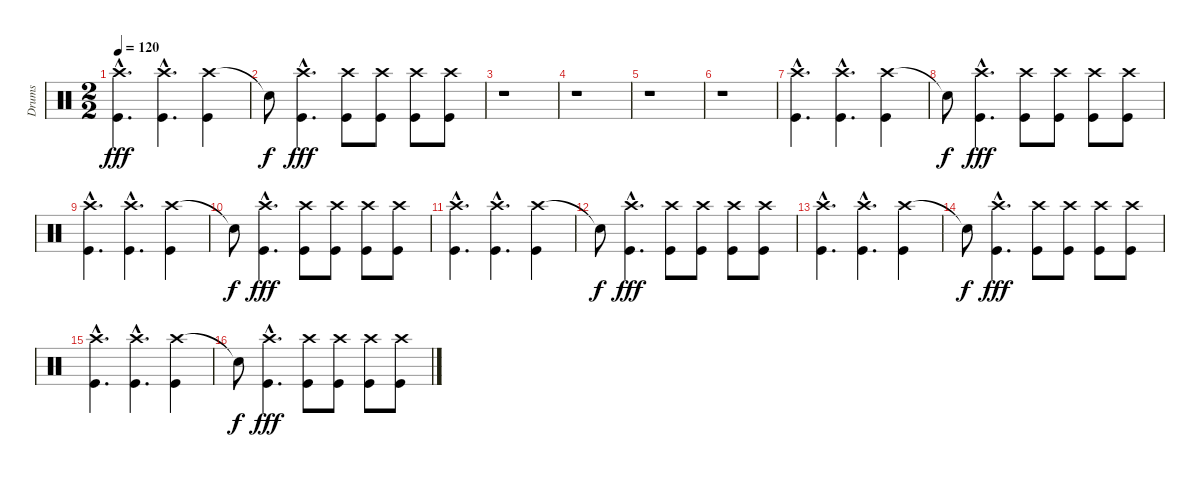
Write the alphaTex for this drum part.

\track ("Drums" "Drums") {instrument percussion}
\staff {score}
\articulation defaults
\ts (2 2)
\tempo 120
\clef neutral
\ks c
("Crash high (hit)" "Kick (hit)"{hac}).4{d dy fff} ("Crash high (hit)" "Kick (hit)"{hac}).4{d} ("Crash high (hit)" "Kick (hit)").4 |
"Snare (hit)"{t}.8{dy f} ("Crash high (hit)" "Kick (hit)"{hac}).4{d dy fff} ("Crash high (hit)" "Kick (hit)").8 ("Crash high (hit)" "Kick (hit)").8 ("Crash high (hit)" "Kick (hit)").8 ("Crash high (hit)" "Kick (hit)").8 |
r.1 |
r.1 |
r.1 |
r.1 |
("Crash high (hit)" "Kick (hit)"{hac}).4{d} ("Crash high (hit)" "Kick (hit)"{hac}).4{d} ("Crash high (hit)" "Kick (hit)").4 |
"Snare (hit)"{t}.8{dy f} ("Crash high (hit)" "Kick (hit)"{hac}).4{d dy fff} ("Crash high (hit)" "Kick (hit)").8 ("Crash high (hit)" "Kick (hit)").8 ("Crash high (hit)" "Kick (hit)").8 ("Crash high (hit)" "Kick (hit)").8 |
("Crash high (hit)" "Kick (hit)"{hac}).4{d} ("Crash high (hit)" "Kick (hit)"{hac}).4{d} ("Crash high (hit)" "Kick (hit)").4 |
"Snare (hit)"{t}.8{dy f} ("Crash high (hit)" "Kick (hit)"{hac}).4{d dy fff} ("Crash high (hit)" "Kick (hit)").8 ("Crash high (hit)" "Kick (hit)").8 ("Crash high (hit)" "Kick (hit)").8 ("Crash high (hit)" "Kick (hit)").8 |
("Crash high (hit)" "Kick (hit)"{hac}).4{d} ("Crash high (hit)" "Kick (hit)"{hac}).4{d} ("Crash high (hit)" "Kick (hit)").4 |
"Snare (hit)"{t}.8{dy f} ("Crash high (hit)" "Kick (hit)"{hac}).4{d dy fff} ("Crash high (hit)" "Kick (hit)").8 ("Crash high (hit)" "Kick (hit)").8 ("Crash high (hit)" "Kick (hit)").8 ("Crash high (hit)" "Kick (hit)").8 |
("Crash high (hit)" "Kick (hit)"{hac}).4{d} ("Crash high (hit)" "Kick (hit)"{hac}).4{d} ("Crash high (hit)" "Kick (hit)").4 |
"Snare (hit)"{t}.8{dy f} ("Crash high (hit)" "Kick (hit)"{hac}).4{d dy fff} ("Crash high (hit)" "Kick (hit)").8 ("Crash high (hit)" "Kick (hit)").8 ("Crash high (hit)" "Kick (hit)").8 ("Crash high (hit)" "Kick (hit)").8 |
("Crash high (hit)" "Kick (hit)"{hac}).4{d} ("Crash high (hit)" "Kick (hit)"{hac}).4{d} ("Crash high (hit)" "Kick (hit)").4 |
"Snare (hit)"{t}.8{dy f} ("Crash high (hit)" "Kick (hit)"{hac}).4{d dy fff} ("Crash high (hit)" "Kick (hit)").8 ("Crash high (hit)" "Kick (hit)").8 ("Crash high (hit)" "Kick (hit)").8 ("Crash high (hit)" "Kick (hit)").8
